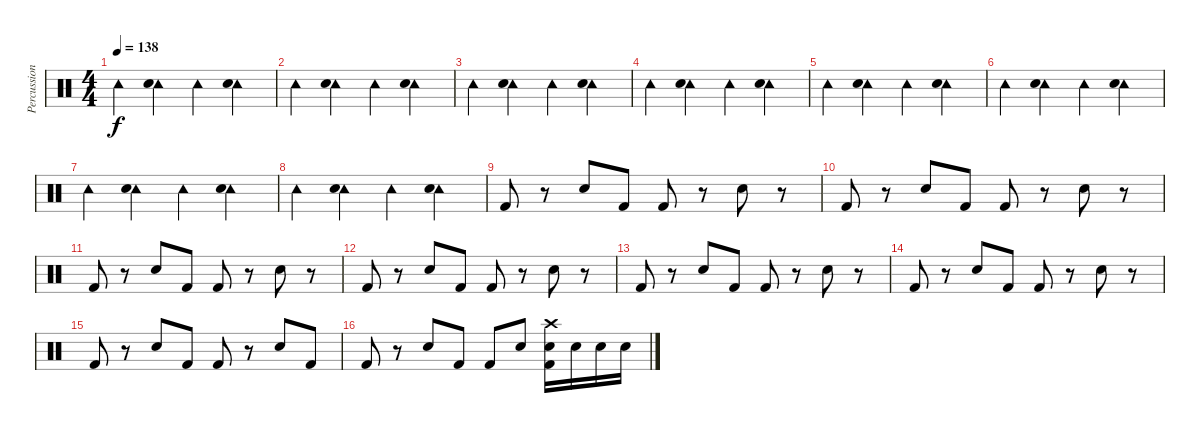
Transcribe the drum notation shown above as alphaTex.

\track ("Percussion" "Percussion") {instrument percussion}
\staff {score}
\articulation defaults
\ts (4 4)
\tempo 138
\clef neutral
\ks c "Tambourine (hit)".4{dy f}
("Tambourine (hit)" "Hand Clap (hit)").4 "Tambourine (hit)".4 ("Tambourine (hit)" "Hand Clap (hit)").4 |
"Tambourine (hit)".4 ("Tambourine (hit)" "Hand Clap (hit)").4 "Tambourine (hit)".4 ("Tambourine (hit)" "Hand Clap (hit)").4 |
"Tambourine (hit)".4 ("Tambourine (hit)" "Hand Clap (hit)").4 "Tambourine (hit)".4 ("Tambourine (hit)" "Hand Clap (hit)").4 |
"Tambourine (hit)".4 ("Tambourine (hit)" "Hand Clap (hit)").4 "Tambourine (hit)".4 ("Tambourine (hit)" "Hand Clap (hit)").4 |
"Tambourine (hit)".4 ("Tambourine (hit)" "Hand Clap (hit)").4 "Tambourine (hit)".4 ("Tambourine (hit)" "Hand Clap (hit)").4 |
"Tambourine (hit)".4 ("Tambourine (hit)" "Hand Clap (hit)").4 "Tambourine (hit)".4 ("Tambourine (hit)" "Hand Clap (hit)").4 |
"Tambourine (hit)".4 ("Tambourine (hit)" "Hand Clap (hit)").4 "Tambourine (hit)".4 ("Tambourine (hit)" "Hand Clap (hit)").4 |
"Tambourine (hit)".4 ("Tambourine (hit)" "Hand Clap (hit)").4 "Tambourine (hit)".4 ("Tambourine (hit)" "Hand Clap (hit)").4 |
"Kick (hit) 2".8 r.8 "Snare (hit) 2".8 "Kick (hit) 2".8 "Kick (hit) 2".8 r.8 "Snare (hit) 2".8 r.8 |
"Kick (hit) 2".8 r.8 "Snare (hit) 2".8 "Kick (hit) 2".8 "Kick (hit) 2".8 r.8 "Snare (hit) 2".8 r.8 |
"Kick (hit) 2".8 r.8 "Snare (hit) 2".8 "Kick (hit) 2".8 "Kick (hit) 2".8 r.8 "Snare (hit) 2".8 r.8 |
"Kick (hit) 2".8 r.8 "Snare (hit) 2".8 "Kick (hit) 2".8 "Kick (hit) 2".8 r.8 "Snare (hit) 2".8 r.8 |
"Kick (hit) 2".8 r.8 "Snare (hit) 2".8 "Kick (hit) 2".8 "Kick (hit) 2".8 r.8 "Snare (hit) 2".8 r.8 |
"Kick (hit) 2".8 r.8 "Snare (hit) 2".8 "Kick (hit) 2".8 "Kick (hit) 2".8 r.8 "Snare (hit) 2".8 r.8 |
"Kick (hit) 2".8 r.8 "Snare (hit) 2".8 "Kick (hit) 2".8 "Kick (hit) 2".8 r.8 "Snare (hit) 2".8 "Kick (hit) 2".8 |
"Kick (hit) 2".8 r.8 "Snare (hit) 2".8 "Kick (hit) 2".8 "Kick (hit) 2".8 "Snare (hit) 2".8 ("Crash high (hit)" "Snare (hit) 2" "Kick (hit) 2").16 "Snare (hit) 2".16 "Snare (hit) 2".16 "Snare (hit) 2".16
